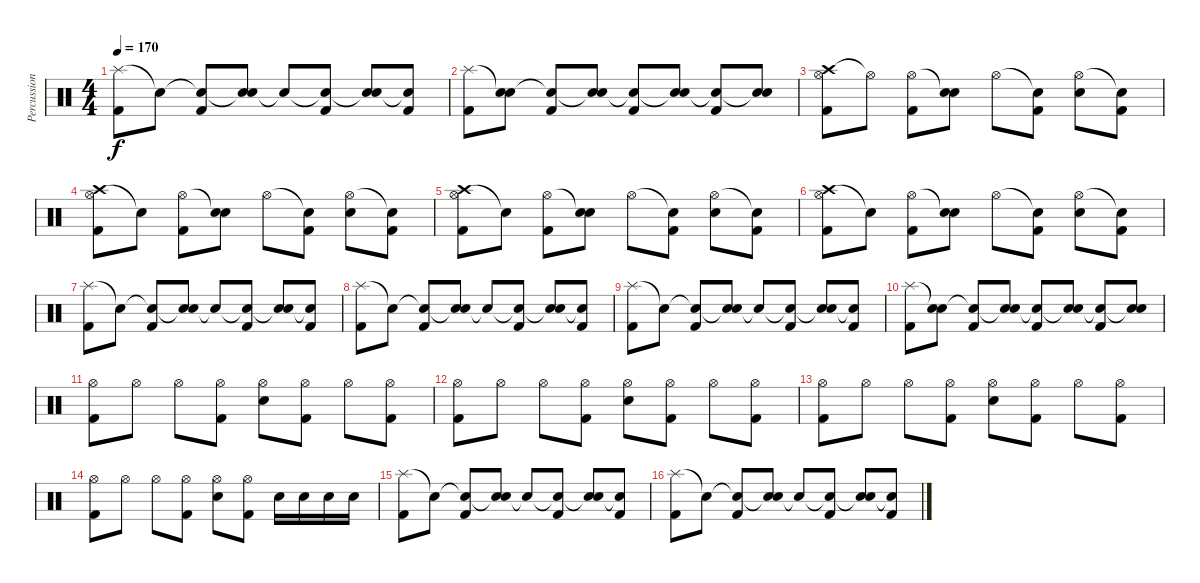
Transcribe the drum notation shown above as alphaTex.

\track ("Percussion" "Percussion") {instrument percussion}
\staff {score}
\articulation defaults
\ts (4 4)
\tempo 170
\clef neutral
\ks c
("Splash (hit)" "Kick (hit) 2").8{dy f} "Snare (hit)"{t}.8 ("Snare (hit)"{t} "Kick (hit) 2").8 ("Snare (hit)"{t} "Electric Snare (hit)").8 "Snare (hit)"{t}.8 ("Snare (hit)"{t} "Kick (hit) 2").8 ("Snare (hit)"{t} "Electric Snare (hit)").8 ("Snare (hit)"{t} "Kick (hit) 2").8 |
("Splash (hit)" "Kick (hit) 2").8 ("Snare (hit)"{t} "Electric Snare (hit)").8 ("Snare (hit)"{t} "Kick (hit) 2").8 ("Snare (hit)"{t} "Electric Snare (hit)").8 ("Snare (hit)"{t} "Kick (hit) 2").8 ("Snare (hit)"{t} "Electric Snare (hit)").8 ("Snare (hit)"{t} "Kick (hit) 2").8 ("Snare (hit)"{t} "Electric Snare (hit)").8 |
("Crash high (hit)" "Hi-Hat (open)" "Kick (hit) 2").8 "Hi-Hat (open)"{t}.8 ("Hi-Hat (open)" "Kick (hit) 2").8 ("Snare (hit)"{t} "Electric Snare (hit)").8 "Hi-Hat (open)".8 ("Snare (hit)"{t} "Kick (hit) 2").8 ("Hi-Hat (open)" "Electric Snare (hit)").8 ("Snare (hit)"{t} "Kick (hit) 2").8 |
("Crash high (hit)" "Hi-Hat (open)" "Kick (hit) 2").8 "Snare (hit)"{t}.8 ("Hi-Hat (open)" "Kick (hit) 2").8 ("Snare (hit)"{t} "Electric Snare (hit)").8 "Hi-Hat (open)".8 ("Snare (hit)"{t} "Kick (hit) 2").8 ("Hi-Hat (open)" "Electric Snare (hit)").8 ("Snare (hit)"{t} "Kick (hit) 2").8 |
("Crash high (hit)" "Hi-Hat (open)" "Kick (hit) 2").8 "Snare (hit)"{t}.8 ("Hi-Hat (open)" "Kick (hit) 2").8 ("Snare (hit)"{t} "Electric Snare (hit)").8 "Hi-Hat (open)".8 ("Snare (hit)"{t} "Kick (hit) 2").8 ("Hi-Hat (open)" "Electric Snare (hit)").8 ("Snare (hit)"{t} "Kick (hit) 2").8 |
("Crash high (hit)" "Hi-Hat (open)" "Kick (hit) 2").8 "Snare (hit)"{t}.8 ("Hi-Hat (open)" "Kick (hit) 2").8 ("Snare (hit)"{t} "Electric Snare (hit)").8 "Hi-Hat (open)".8 ("Snare (hit)"{t} "Kick (hit) 2").8 ("Hi-Hat (open)" "Electric Snare (hit)").8 ("Snare (hit)"{t} "Kick (hit) 2").8 |
("Splash (hit)" "Kick (hit) 2").8 "Snare (hit)"{t}.8 ("Snare (hit)"{t} "Kick (hit) 2").8 ("Snare (hit)"{t} "Electric Snare (hit)").8 "Snare (hit)"{t}.8 ("Snare (hit)"{t} "Kick (hit) 2").8 ("Snare (hit)"{t} "Electric Snare (hit)").8 ("Snare (hit)"{t} "Kick (hit) 2").8 |
("Splash (hit)" "Kick (hit) 2").8 "Snare (hit)"{t}.8 ("Snare (hit)"{t} "Kick (hit) 2").8 ("Snare (hit)"{t} "Electric Snare (hit)").8 "Snare (hit)"{t}.8 ("Snare (hit)"{t} "Kick (hit) 2").8 ("Snare (hit)"{t} "Electric Snare (hit)").8 ("Snare (hit)"{t} "Kick (hit) 2").8 |
("Splash (hit)" "Kick (hit) 2").8 "Snare (hit)"{t}.8 ("Snare (hit)"{t} "Kick (hit) 2").8 ("Snare (hit)"{t} "Electric Snare (hit)").8 "Snare (hit)"{t}.8 ("Snare (hit)"{t} "Kick (hit) 2").8 ("Snare (hit)"{t} "Electric Snare (hit)").8 ("Snare (hit)"{t} "Kick (hit) 2").8 |
("Splash (hit)" "Kick (hit) 2").8 ("Snare (hit)"{t} "Electric Snare (hit)").8 ("Snare (hit)"{t} "Kick (hit) 2").8 ("Snare (hit)"{t} "Electric Snare (hit)").8 ("Snare (hit)"{t} "Kick (hit) 2").8 ("Snare (hit)"{t} "Electric Snare (hit)").8 ("Snare (hit)"{t} "Kick (hit) 2").8 ("Snare (hit)"{t} "Electric Snare (hit)").8 |
("Hi-Hat (open)" "Kick (hit) 2").8 "Hi-Hat (open)".8 "Hi-Hat (open)".8 ("Hi-Hat (open)" "Kick (hit) 2").8 ("Hi-Hat (open)" "Electric Snare (hit)").8 ("Hi-Hat (open)" "Kick (hit) 2").8 "Hi-Hat (open)".8 ("Hi-Hat (open)" "Kick (hit) 2").8 |
("Hi-Hat (open)" "Kick (hit) 2").8 "Hi-Hat (open)".8 "Hi-Hat (open)".8 ("Hi-Hat (open)" "Kick (hit) 2").8 ("Hi-Hat (open)" "Electric Snare (hit)").8 ("Hi-Hat (open)" "Kick (hit) 2").8 "Hi-Hat (open)".8 ("Hi-Hat (open)" "Kick (hit) 2").8 |
("Hi-Hat (open)" "Kick (hit) 2").8 "Hi-Hat (open)".8 "Hi-Hat (open)".8 ("Hi-Hat (open)" "Kick (hit) 2").8 ("Hi-Hat (open)" "Electric Snare (hit)").8 ("Hi-Hat (open)" "Kick (hit) 2").8 "Hi-Hat (open)".8 ("Hi-Hat (open)" "Kick (hit) 2").8 |
("Hi-Hat (open)" "Kick (hit) 2").8 "Hi-Hat (open)".8 "Hi-Hat (open)".8 ("Hi-Hat (open)" "Kick (hit) 2").8 ("Hi-Hat (open)" "Electric Snare (hit)").8 ("Hi-Hat (open)" "Kick (hit) 2").8 "Electric Snare (hit)".16 "Electric Snare (hit)".16 "Electric Snare (hit)".16 "Electric Snare (hit)".16 |
("Splash (hit)" "Kick (hit) 2").8 "Snare (hit)"{t}.8 ("Snare (hit)"{t} "Kick (hit) 2").8 ("Snare (hit)"{t} "Electric Snare (hit)").8 "Snare (hit)"{t}.8 ("Snare (hit)"{t} "Kick (hit) 2").8 ("Snare (hit)"{t} "Electric Snare (hit)").8 ("Snare (hit)"{t} "Kick (hit) 2").8 |
("Splash (hit)" "Kick (hit) 2").8 "Snare (hit)"{t}.8 ("Snare (hit)"{t} "Kick (hit) 2").8 ("Snare (hit)"{t} "Electric Snare (hit)").8 "Snare (hit)"{t}.8 ("Snare (hit)"{t} "Kick (hit) 2").8 ("Snare (hit)"{t} "Electric Snare (hit)").8 ("Snare (hit)"{t} "Kick (hit) 2").8
